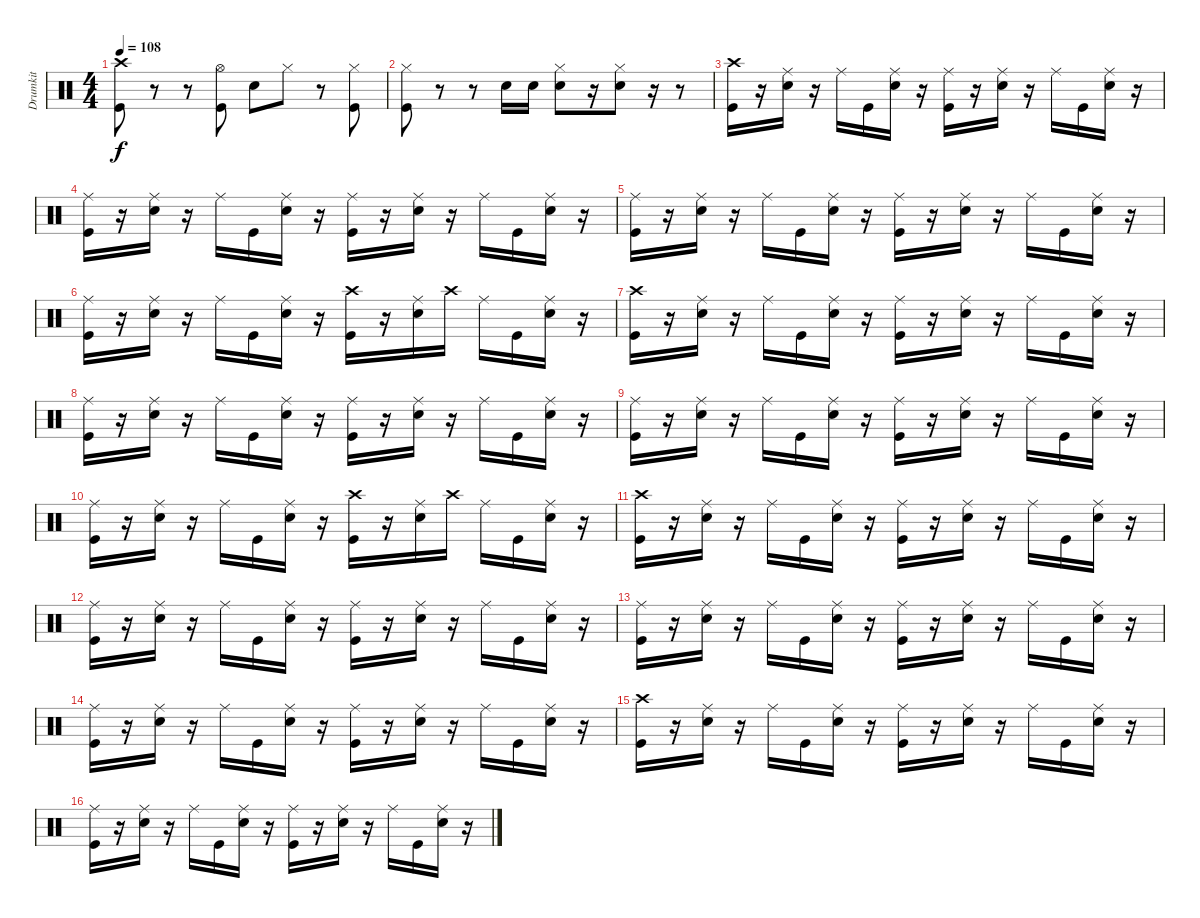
\track ("Drumkit" "Drumkit") {instrument percussion}
\staff {score}
\articulation defaults
\ts (4 4)
\tempo 108
\clef neutral
\ks c
("Kick (hit)" "Crash high (hit)").8{dy f} r.8 r.8 ("Kick (hit)" "Hi-Hat (open)").8 "Snare (hit) 2".8 "Hi-Hat (closed)".8 r.8 ("Kick (hit)" "Hi-Hat (closed)").8 |
("Kick (hit)" "Hi-Hat (closed)").8 r.8 r.8 "Snare (hit) 2".16 "Snare (hit) 2".16 ("Snare (hit) 2" "Hi-Hat (closed)").8 r.16 ("Snare (hit) 2" "Hi-Hat (closed)").8 r.16 r.8 |
("Kick (hit)" "Crash high (hit)").16 r.16 ("Snare (hit) 2" "Ride (middle)").16 r.16 "Ride (middle)".16 "Kick (hit)".16 ("Snare (hit) 2" "Ride (middle)").16 r.16 ("Kick (hit)" "Ride (middle)").16 r.16 ("Snare (hit) 2" "Ride (middle)").16 r.16 "Ride (middle)".16 "Kick (hit)".16 ("Snare (hit) 2" "Ride (middle)").16 r.16 |
("Kick (hit)" "Ride (middle)").16 r.16 ("Snare (hit) 2" "Ride (middle)").16 r.16 "Ride (middle)".16 "Kick (hit)".16 ("Snare (hit) 2" "Ride (middle)").16 r.16 ("Kick (hit)" "Ride (middle)").16 r.16 ("Snare (hit) 2" "Ride (middle)").16 r.16 "Ride (middle)".16 "Kick (hit)".16 ("Snare (hit) 2" "Ride (middle)").16 r.16 |
("Kick (hit)" "Ride (middle)").16 r.16 ("Snare (hit) 2" "Ride (middle)").16 r.16 "Ride (middle)".16 "Kick (hit)".16 ("Snare (hit) 2" "Ride (middle)").16 r.16 ("Kick (hit)" "Ride (middle)").16 r.16 ("Snare (hit) 2" "Ride (middle)").16 r.16 "Ride (middle)".16 "Kick (hit)".16 ("Snare (hit) 2" "Ride (middle)").16 r.16 |
("Kick (hit)" "Ride (middle)").16 r.16 ("Snare (hit) 2" "Ride (middle)").16 r.16 "Ride (middle)".16 "Kick (hit)".16 ("Snare (hit) 2" "Ride (middle)").16 r.16 ("Kick (hit)" "Crash high (hit)").16 r.16 ("Snare (hit) 2" "Ride (middle)").16 "Crash high (hit)".16 "Ride (middle)".16 "Kick (hit)".16 ("Snare (hit) 2" "Ride (middle)").16 r.16 |
("Kick (hit)" "Crash high (hit)").16 r.16 ("Snare (hit) 2" "Ride (middle)").16 r.16 "Ride (middle)".16 "Kick (hit)".16 ("Snare (hit) 2" "Ride (middle)").16 r.16 ("Kick (hit)" "Ride (middle)").16 r.16 ("Snare (hit) 2" "Ride (middle)").16 r.16 "Ride (middle)".16 "Kick (hit)".16 ("Snare (hit) 2" "Ride (middle)").16 r.16 |
("Kick (hit)" "Ride (middle)").16 r.16 ("Snare (hit) 2" "Ride (middle)").16 r.16 "Ride (middle)".16 "Kick (hit)".16 ("Snare (hit) 2" "Ride (middle)").16 r.16 ("Kick (hit)" "Ride (middle)").16 r.16 ("Snare (hit) 2" "Ride (middle)").16 r.16 "Ride (middle)".16 "Kick (hit)".16 ("Snare (hit) 2" "Ride (middle)").16 r.16 |
("Kick (hit)" "Ride (middle)").16 r.16 ("Snare (hit) 2" "Ride (middle)").16 r.16 "Ride (middle)".16 "Kick (hit)".16 ("Snare (hit) 2" "Ride (middle)").16 r.16 ("Kick (hit)" "Ride (middle)").16 r.16 ("Snare (hit) 2" "Ride (middle)").16 r.16 "Ride (middle)".16 "Kick (hit)".16 ("Snare (hit) 2" "Ride (middle)").16 r.16 |
("Kick (hit)" "Ride (middle)").16 r.16 ("Snare (hit) 2" "Ride (middle)").16 r.16 "Ride (middle)".16 "Kick (hit)".16 ("Snare (hit) 2" "Ride (middle)").16 r.16 ("Kick (hit)" "Crash high (hit)").16 r.16 ("Snare (hit) 2" "Ride (middle)").16 "Crash high (hit)".16 "Ride (middle)".16 "Kick (hit)".16 ("Snare (hit) 2" "Ride (middle)").16 r.16 |
("Kick (hit)" "Crash high (hit)").16 r.16 ("Snare (hit) 2" "Ride (middle)").16 r.16 "Ride (middle)".16 "Kick (hit)".16 ("Snare (hit) 2" "Ride (middle)").16 r.16 ("Kick (hit)" "Ride (middle)").16 r.16 ("Snare (hit) 2" "Ride (middle)").16 r.16 "Ride (middle)".16 "Kick (hit)".16 ("Snare (hit) 2" "Ride (middle)").16 r.16 |
("Kick (hit)" "Ride (middle)").16 r.16 ("Snare (hit) 2" "Ride (middle)").16 r.16 "Ride (middle)".16 "Kick (hit)".16 ("Snare (hit) 2" "Ride (middle)").16 r.16 ("Kick (hit)" "Ride (middle)").16 r.16 ("Snare (hit) 2" "Ride (middle)").16 r.16 "Ride (middle)".16 "Kick (hit)".16 ("Snare (hit) 2" "Ride (middle)").16 r.16 |
("Kick (hit)" "Ride (middle)").16 r.16 ("Snare (hit) 2" "Ride (middle)").16 r.16 "Ride (middle)".16 "Kick (hit)".16 ("Snare (hit) 2" "Ride (middle)").16 r.16 ("Kick (hit)" "Ride (middle)").16 r.16 ("Snare (hit) 2" "Ride (middle)").16 r.16 "Ride (middle)".16 "Kick (hit)".16 ("Snare (hit) 2" "Ride (middle)").16 r.16 |
("Kick (hit)" "Ride (middle)").16 r.16 ("Snare (hit) 2" "Ride (middle)").16 r.16 "Ride (middle)".16 "Kick (hit)".16 ("Snare (hit) 2" "Ride (middle)").16 r.16 ("Kick (hit)" "Ride (middle)").16 r.16 ("Snare (hit) 2" "Ride (middle)").16 r.16 "Ride (middle)".16 "Kick (hit)".16 ("Snare (hit) 2" "Ride (middle)").16 r.16 |
("Kick (hit)" "Crash high (hit)").16 r.16 ("Snare (hit) 2" "Ride (middle)").16 r.16 "Ride (middle)".16 "Kick (hit)".16 ("Snare (hit) 2" "Ride (middle)").16 r.16 ("Kick (hit)" "Ride (middle)").16 r.16 ("Snare (hit) 2" "Ride (middle)").16 r.16 "Ride (middle)".16 "Kick (hit)".16 ("Snare (hit) 2" "Ride (middle)").16 r.16 |
("Kick (hit)" "Ride (middle)").16 r.16 ("Snare (hit) 2" "Ride (middle)").16 r.16 "Ride (middle)".16 "Kick (hit)".16 ("Snare (hit) 2" "Ride (middle)").16 r.16 ("Kick (hit)" "Ride (middle)").16 r.16 ("Snare (hit) 2" "Ride (middle)").16 r.16 "Ride (middle)".16 "Kick (hit)".16 ("Snare (hit) 2" "Ride (middle)").16 r.16
